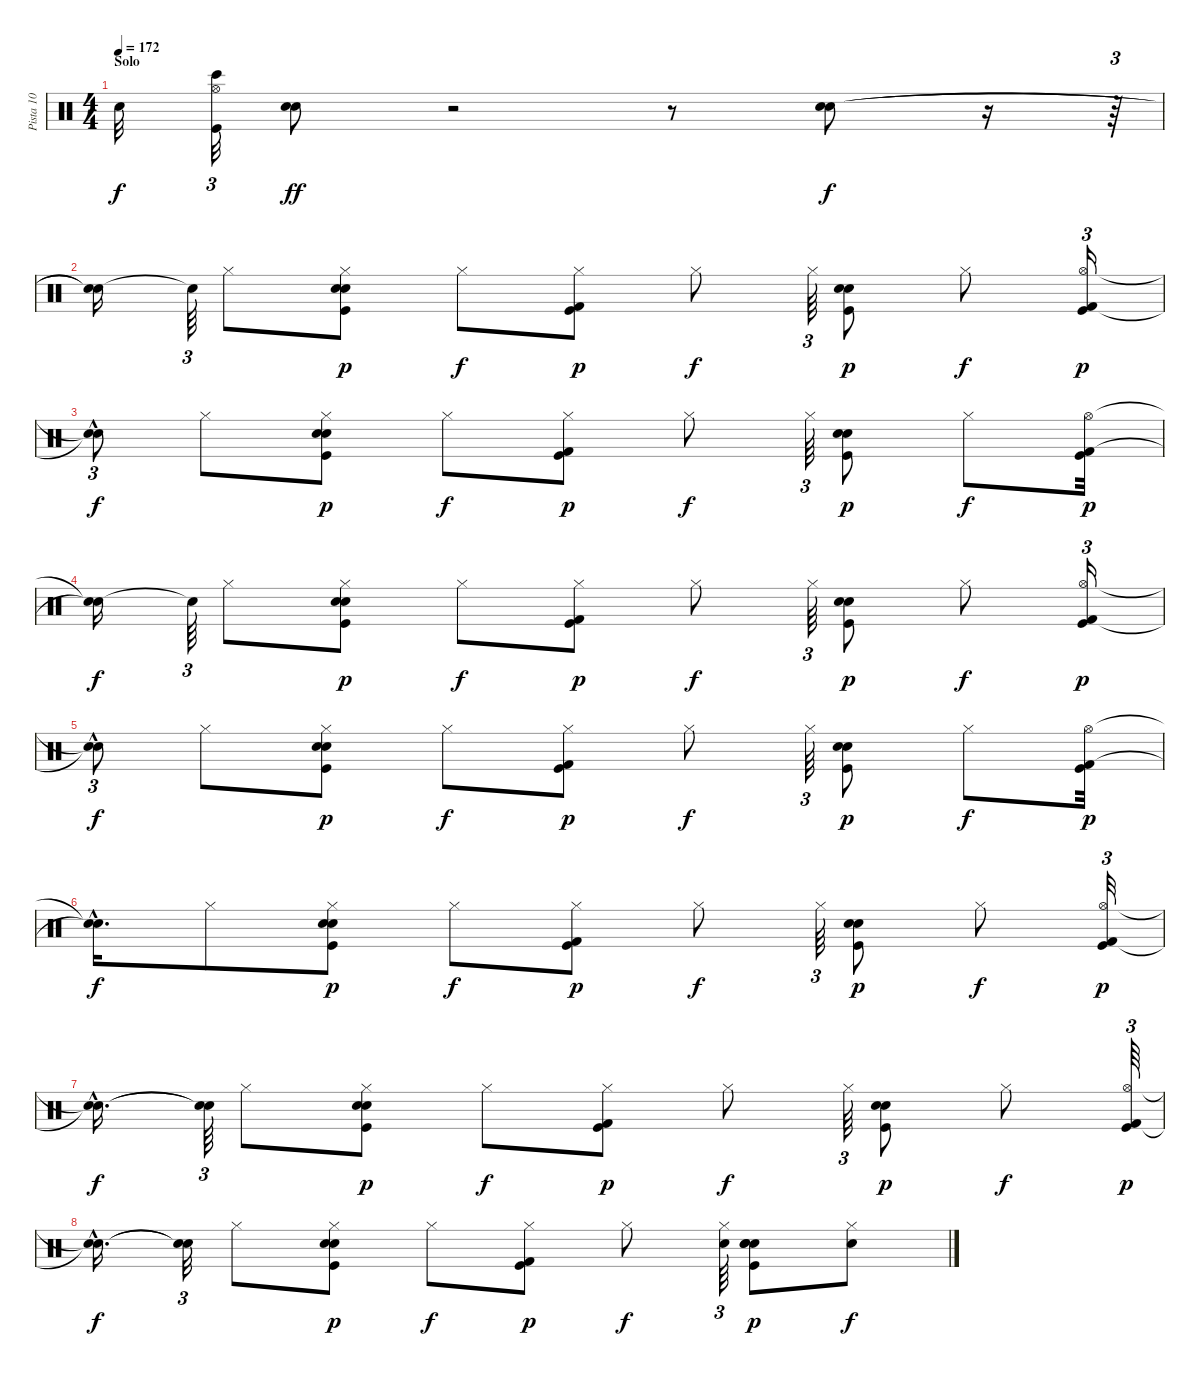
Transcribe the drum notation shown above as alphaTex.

\track ("Pista 10" "Pista 10") {instrument percussion}
\staff {score}
\articulation defaults
\ts (4 4)
\section ("" "Solo")
\tempo 172
\clef neutral
\ks c "Snare (hit)"{t}.32{dy f}
("Bongo High (hit)" "Kick (hit)" "Hi-Hat (open)").32{tu (3 2)} ("Electric Snare (hit)" "Snare (hit) 2").8{dy ff} r.2 r.8 ("Electric Snare (hit)" "Snare (hit) 2").8{dy f} r.16 r.64{tu (3 2)} |
("Snare (hit)"{t} "Snare (hit)"{t}).16 "Snare (hit)"{t}.64{tu (3 2)} "Hi-Hat (closed)".8 ("Hi-Hat (closed)" "Snare (hit) 2" "Electric Snare (hit)" "Kick (hit)").8{dy p} "Hi-Hat (closed)".8{dy f} ("Hi-Hat (closed)" "Kick (hit) 2" "Kick (hit)").8{dy p} "Hi-Hat (closed)".8{dy f} "Hi-Hat (closed)".64{tu (3 2)} ("Snare (hit) 2" "Electric Snare (hit)" "Kick (hit)").8{dy p} "Hi-Hat (closed)".8{dy f} ("Hi-Hat (open)" "Kick (hit) 2" "Kick (hit)").16{tu (3 2) dy p} |
("Snare (hit)"{t} "Snare (hit)"{hac t}).8{tu (3 2) dy f} "Hi-Hat (closed)".8 ("Hi-Hat (closed)" "Snare (hit) 2" "Electric Snare (hit)" "Kick (hit)").8{dy p} "Hi-Hat (closed)".8{dy f} ("Hi-Hat (closed)" "Kick (hit) 2" "Kick (hit)").8{dy p} "Hi-Hat (closed)".8{dy f} "Hi-Hat (closed)".64{tu (3 2)} ("Snare (hit) 2" "Electric Snare (hit)" "Kick (hit)").8{dy p} "Hi-Hat (closed)".8{dy f} ("Hi-Hat (open)" "Kick (hit) 2" "Kick (hit)").32{dy p} |
("Snare (hit)"{t} "Snare (hit)"{t}).16{dy f} "Snare (hit)"{t}.64{tu (3 2)} "Hi-Hat (closed)".8 ("Hi-Hat (closed)" "Snare (hit) 2" "Electric Snare (hit)" "Kick (hit)").8{dy p} "Hi-Hat (closed)".8{dy f} ("Hi-Hat (closed)" "Kick (hit) 2" "Kick (hit)").8{dy p} "Hi-Hat (closed)".8{dy f} "Hi-Hat (closed)".64{tu (3 2)} ("Snare (hit) 2" "Electric Snare (hit)" "Kick (hit)").8{dy p} "Hi-Hat (closed)".8{dy f} ("Hi-Hat (open)" "Kick (hit) 2" "Kick (hit)").16{tu (3 2) dy p} |
("Snare (hit)"{t} "Snare (hit)"{hac t}).8{tu (3 2) dy f} "Hi-Hat (closed)".8 ("Hi-Hat (closed)" "Snare (hit) 2" "Electric Snare (hit)" "Kick (hit)").8{dy p} "Hi-Hat (closed)".8{dy f} ("Hi-Hat (closed)" "Kick (hit) 2" "Kick (hit)").8{dy p} "Hi-Hat (closed)".8{dy f} "Hi-Hat (closed)".64{tu (3 2)} ("Snare (hit) 2" "Electric Snare (hit)" "Kick (hit)").8{dy p} "Hi-Hat (closed)".8{dy f} ("Hi-Hat (open)" "Kick (hit) 2" "Kick (hit)").32{dy p} |
("Snare (hit)"{hac t} "Snare (hit)"{hac t}).16{d dy f} "Hi-Hat (closed)".8 ("Hi-Hat (closed)" "Snare (hit) 2" "Electric Snare (hit)" "Kick (hit)").8{dy p} "Hi-Hat (closed)".8{dy f} ("Hi-Hat (closed)" "Kick (hit) 2" "Kick (hit)").8{dy p} "Hi-Hat (closed)".8{dy f} "Hi-Hat (closed)".64{tu (3 2)} ("Snare (hit) 2" "Electric Snare (hit)" "Kick (hit)").8{dy p} "Hi-Hat (closed)".8{dy f} ("Hi-Hat (open)" "Kick (hit) 2" "Kick (hit)").32{tu (3 2) dy p} |
("Snare (hit)"{hac t} "Snare (hit)"{hac t}).16{d dy f} ("Snare (hit)"{t} "Snare (hit)"{t}).64{tu (3 2)} "Hi-Hat (closed)".8 ("Hi-Hat (closed)" "Snare (hit) 2" "Electric Snare (hit)" "Kick (hit)").8{dy p} "Hi-Hat (closed)".8{dy f} ("Hi-Hat (closed)" "Kick (hit) 2" "Kick (hit)").8{dy p} "Hi-Hat (closed)".8{dy f} "Hi-Hat (closed)".64{tu (3 2)} ("Snare (hit) 2" "Electric Snare (hit)" "Kick (hit)").8{dy p} "Hi-Hat (closed)".8{dy f} ("Hi-Hat (open)" "Kick (hit) 2" "Kick (hit)").64{tu (3 2) dy p} |
("Snare (hit)"{hac t} "Snare (hit)"{hac t}).16{d dy f} ("Snare (hit)"{t} "Snare (hit)"{t}).32{tu (3 2)} "Hi-Hat (closed)".8 ("Hi-Hat (closed)" "Snare (hit) 2" "Electric Snare (hit)" "Kick (hit)").8{dy p} "Hi-Hat (closed)".8{dy f} ("Hi-Hat (closed)" "Kick (hit) 2" "Kick (hit)").8{dy p} "Hi-Hat (closed)".8{dy f} ("Electric Snare (hit)" "Hi-Hat (closed)").64{tu (3 2)} ("Snare (hit) 2" "Electric Snare (hit)" "Kick (hit)" "Snare (hit) 2").8{dy p} ("Hi-Hat (closed)" "Electric Snare (hit)").8{dy f}
